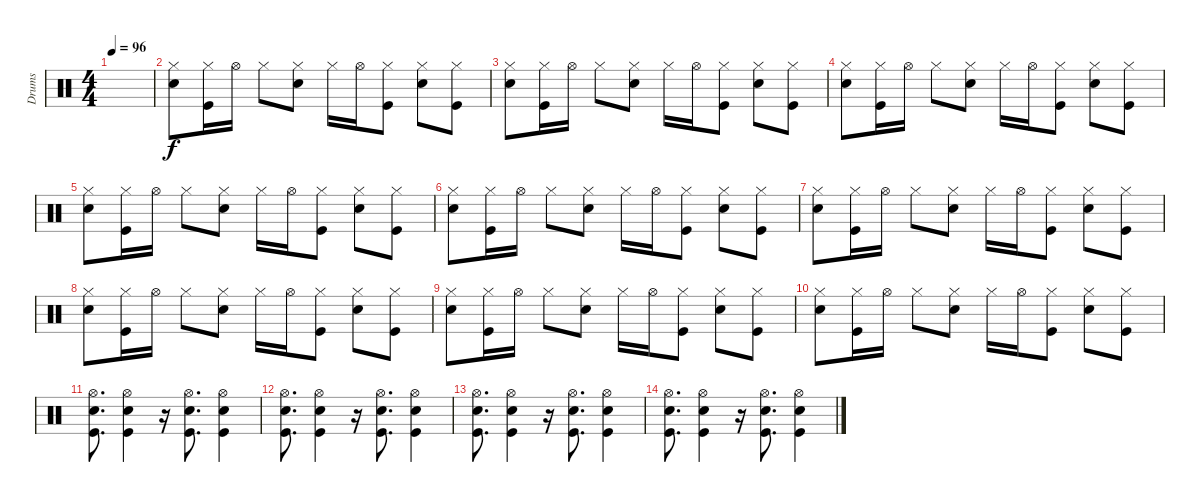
\track ("Drums" "Drums") {instrument percussion}
\staff {score}
\articulation defaults
\ts (4 4)
\tempo 96
\clef neutral
\ks c
|
("Hi-Hat (closed)" "Electric Snare (hit)").8 ("Hi-Hat (closed)" "Kick (hit)").16 "Hi-Hat (open)".16 "Hi-Hat (closed)".8 ("Hi-Hat (closed)" "Electric Snare (hit)").8 "Hi-Hat (closed)".16 "Hi-Hat (open)".16 ("Hi-Hat (closed)" "Kick (hit)").8 ("Hi-Hat (closed)" "Electric Snare (hit)").8 ("Hi-Hat (closed)" "Kick (hit)").8 |
("Hi-Hat (closed)" "Electric Snare (hit)").8 ("Hi-Hat (closed)" "Kick (hit)").16 "Hi-Hat (open)".16 "Hi-Hat (closed)".8 ("Hi-Hat (closed)" "Electric Snare (hit)").8 "Hi-Hat (closed)".16 "Hi-Hat (open)".16 ("Hi-Hat (closed)" "Kick (hit)").8 ("Hi-Hat (closed)" "Electric Snare (hit)").8 ("Hi-Hat (closed)" "Kick (hit)").8 |
("Hi-Hat (closed)" "Electric Snare (hit)").8 ("Hi-Hat (closed)" "Kick (hit)").16 "Hi-Hat (open)".16 "Hi-Hat (closed)".8 ("Hi-Hat (closed)" "Electric Snare (hit)").8 "Hi-Hat (closed)".16 "Hi-Hat (open)".16 ("Hi-Hat (closed)" "Kick (hit)").8 ("Hi-Hat (closed)" "Electric Snare (hit)").8 ("Hi-Hat (closed)" "Kick (hit)").8 |
("Hi-Hat (closed)" "Electric Snare (hit)").8 ("Hi-Hat (closed)" "Kick (hit)").16 "Hi-Hat (open)".16 "Hi-Hat (closed)".8 ("Hi-Hat (closed)" "Electric Snare (hit)").8 "Hi-Hat (closed)".16 "Hi-Hat (open)".16 ("Hi-Hat (closed)" "Kick (hit)").8 ("Hi-Hat (closed)" "Electric Snare (hit)").8 ("Hi-Hat (closed)" "Kick (hit)").8 |
("Hi-Hat (closed)" "Electric Snare (hit)").8 ("Hi-Hat (closed)" "Kick (hit)").16 "Hi-Hat (open)".16 "Hi-Hat (closed)".8 ("Hi-Hat (closed)" "Electric Snare (hit)").8 "Hi-Hat (closed)".16 "Hi-Hat (open)".16 ("Hi-Hat (closed)" "Kick (hit)").8 ("Hi-Hat (closed)" "Electric Snare (hit)").8 ("Hi-Hat (closed)" "Kick (hit)").8 |
("Hi-Hat (closed)" "Electric Snare (hit)").8 ("Hi-Hat (closed)" "Kick (hit)").16 "Hi-Hat (open)".16 "Hi-Hat (closed)".8 ("Hi-Hat (closed)" "Electric Snare (hit)").8 "Hi-Hat (closed)".16 "Hi-Hat (open)".16 ("Hi-Hat (closed)" "Kick (hit)").8 ("Hi-Hat (closed)" "Electric Snare (hit)").8 ("Hi-Hat (closed)" "Kick (hit)").8 |
("Hi-Hat (closed)" "Electric Snare (hit)").8 ("Hi-Hat (closed)" "Kick (hit)").16 "Hi-Hat (open)".16 "Hi-Hat (closed)".8 ("Hi-Hat (closed)" "Electric Snare (hit)").8 "Hi-Hat (closed)".16 "Hi-Hat (open)".16 ("Hi-Hat (closed)" "Kick (hit)").8 ("Hi-Hat (closed)" "Electric Snare (hit)").8 ("Hi-Hat (closed)" "Kick (hit)").8 |
("Hi-Hat (closed)" "Electric Snare (hit)").8 ("Hi-Hat (closed)" "Kick (hit)").16 "Hi-Hat (open)".16 "Hi-Hat (closed)".8 ("Hi-Hat (closed)" "Electric Snare (hit)").8 "Hi-Hat (closed)".16 "Hi-Hat (open)".16 ("Hi-Hat (closed)" "Kick (hit)").8 ("Hi-Hat (closed)" "Electric Snare (hit)").8 ("Hi-Hat (closed)" "Kick (hit)").8 |
("Hi-Hat (closed)" "Electric Snare (hit)").8 ("Hi-Hat (closed)" "Kick (hit)").16 "Hi-Hat (open)".16 "Hi-Hat (closed)".8 ("Hi-Hat (closed)" "Electric Snare (hit)").8 "Hi-Hat (closed)".16 "Hi-Hat (open)".16 ("Hi-Hat (closed)" "Kick (hit)").8 ("Hi-Hat (closed)" "Electric Snare (hit)").8 ("Hi-Hat (closed)" "Kick (hit)").8 |
("Hi-Hat (open)" "Electric Snare (hit)" "Kick (hit)").8{d} ("Hi-Hat (open)" "Electric Snare (hit)" "Kick (hit)").4 r.16 ("Hi-Hat (open)" "Electric Snare (hit)" "Kick (hit)").8{d} ("Hi-Hat (open)" "Electric Snare (hit)" "Kick (hit)").4 |
("Hi-Hat (open)" "Electric Snare (hit)" "Kick (hit)").8{d} ("Hi-Hat (open)" "Electric Snare (hit)" "Kick (hit)").4 r.16 ("Hi-Hat (open)" "Electric Snare (hit)" "Kick (hit)").8{d} ("Hi-Hat (open)" "Electric Snare (hit)" "Kick (hit)").4 |
("Hi-Hat (open)" "Electric Snare (hit)" "Kick (hit)").8{d} ("Hi-Hat (open)" "Electric Snare (hit)" "Kick (hit)").4 r.16 ("Hi-Hat (open)" "Electric Snare (hit)" "Kick (hit)").8{d} ("Hi-Hat (open)" "Electric Snare (hit)" "Kick (hit)").4 |
("Hi-Hat (open)" "Electric Snare (hit)" "Kick (hit)").8{d} ("Hi-Hat (open)" "Electric Snare (hit)" "Kick (hit)").4 r.16 ("Hi-Hat (open)" "Electric Snare (hit)" "Kick (hit)").8{d} ("Hi-Hat (open)" "Electric Snare (hit)" "Kick (hit)").4
